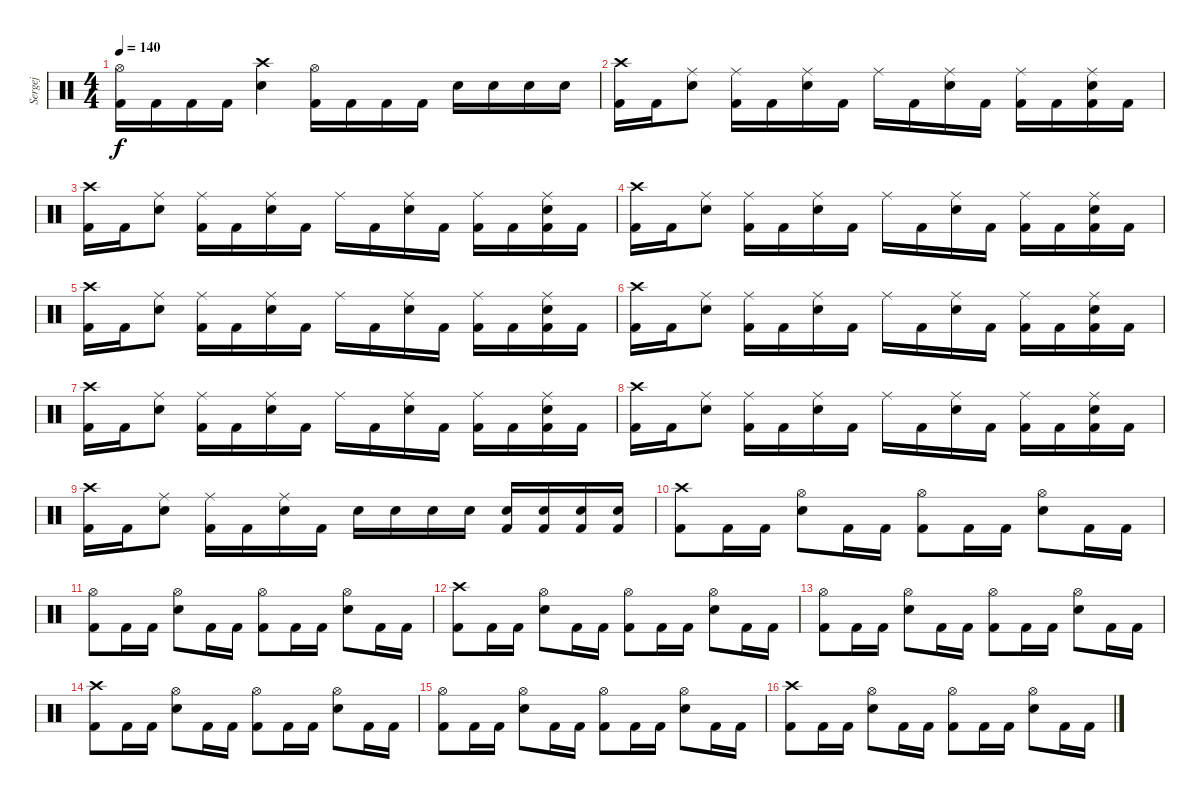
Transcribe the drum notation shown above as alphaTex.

\track ("Sergej" "Sergej") {instrument percussion}
\staff {score}
\articulation defaults
\ts (4 4)
\tempo 140
\clef neutral
\ks c
("Hi-Hat (open)" "Kick (hit) 2").16{dy f} "Kick (hit) 2".16 "Kick (hit) 2".16 "Kick (hit) 2".16 ("Crash high (hit)" "Snare (hit) 2").4 ("Hi-Hat (open)" "Kick (hit) 2").16 "Kick (hit) 2".16 "Kick (hit) 2".16 "Kick (hit) 2".16 "Snare (hit) 2".16 "Snare (hit) 2".16 "Snare (hit) 2".16 "Snare (hit) 2".16 |
("Crash high (hit)" "Kick (hit) 2").16 "Kick (hit) 2".16 ("Ride (middle)" "Snare (hit) 2").8 ("Ride (middle)" "Kick (hit) 2").16 "Kick (hit) 2".16 ("Ride (middle)" "Snare (hit) 2").16 "Kick (hit) 2".16 "Ride (middle)".16 "Kick (hit) 2".16 ("Ride (middle)" "Snare (hit) 2").16 "Kick (hit) 2".16 ("Ride (middle)" "Kick (hit) 2").16 "Kick (hit) 2".16 ("Ride (middle)" "Snare (hit) 2" "Kick (hit) 2").16 "Kick (hit) 2".16 |
("Crash high (hit)" "Kick (hit) 2").16 "Kick (hit) 2".16 ("Ride (middle)" "Snare (hit) 2").8 ("Ride (middle)" "Kick (hit) 2").16 "Kick (hit) 2".16 ("Ride (middle)" "Snare (hit) 2").16 "Kick (hit) 2".16 "Ride (middle)".16 "Kick (hit) 2".16 ("Ride (middle)" "Snare (hit) 2").16 "Kick (hit) 2".16 ("Ride (middle)" "Kick (hit) 2").16 "Kick (hit) 2".16 ("Ride (middle)" "Snare (hit) 2" "Kick (hit) 2").16 "Kick (hit) 2".16 |
("Crash high (hit)" "Kick (hit) 2").16 "Kick (hit) 2".16 ("Ride (middle)" "Snare (hit) 2").8 ("Ride (middle)" "Kick (hit) 2").16 "Kick (hit) 2".16 ("Ride (middle)" "Snare (hit) 2").16 "Kick (hit) 2".16 "Ride (middle)".16 "Kick (hit) 2".16 ("Ride (middle)" "Snare (hit) 2").16 "Kick (hit) 2".16 ("Ride (middle)" "Kick (hit) 2").16 "Kick (hit) 2".16 ("Ride (middle)" "Snare (hit) 2" "Kick (hit) 2").16 "Kick (hit) 2".16 |
("Crash high (hit)" "Kick (hit) 2").16 "Kick (hit) 2".16 ("Ride (middle)" "Snare (hit) 2").8 ("Ride (middle)" "Kick (hit) 2").16 "Kick (hit) 2".16 ("Ride (middle)" "Snare (hit) 2").16 "Kick (hit) 2".16 "Ride (middle)".16 "Kick (hit) 2".16 ("Ride (middle)" "Snare (hit) 2").16 "Kick (hit) 2".16 ("Ride (middle)" "Kick (hit) 2").16 "Kick (hit) 2".16 ("Ride (middle)" "Snare (hit) 2" "Kick (hit) 2").16 "Kick (hit) 2".16 |
("Crash high (hit)" "Kick (hit) 2").16 "Kick (hit) 2".16 ("Ride (middle)" "Snare (hit) 2").8 ("Ride (middle)" "Kick (hit) 2").16 "Kick (hit) 2".16 ("Ride (middle)" "Snare (hit) 2").16 "Kick (hit) 2".16 "Ride (middle)".16 "Kick (hit) 2".16 ("Ride (middle)" "Snare (hit) 2").16 "Kick (hit) 2".16 ("Ride (middle)" "Kick (hit) 2").16 "Kick (hit) 2".16 ("Ride (middle)" "Snare (hit) 2" "Kick (hit) 2").16 "Kick (hit) 2".16 |
("Crash high (hit)" "Kick (hit) 2").16 "Kick (hit) 2".16 ("Ride (middle)" "Snare (hit) 2").8 ("Ride (middle)" "Kick (hit) 2").16 "Kick (hit) 2".16 ("Ride (middle)" "Snare (hit) 2").16 "Kick (hit) 2".16 "Ride (middle)".16 "Kick (hit) 2".16 ("Ride (middle)" "Snare (hit) 2").16 "Kick (hit) 2".16 ("Ride (middle)" "Kick (hit) 2").16 "Kick (hit) 2".16 ("Ride (middle)" "Snare (hit) 2" "Kick (hit) 2").16 "Kick (hit) 2".16 |
("Crash high (hit)" "Kick (hit) 2").16 "Kick (hit) 2".16 ("Ride (middle)" "Snare (hit) 2").8 ("Ride (middle)" "Kick (hit) 2").16 "Kick (hit) 2".16 ("Ride (middle)" "Snare (hit) 2").16 "Kick (hit) 2".16 "Ride (middle)".16 "Kick (hit) 2".16 ("Ride (middle)" "Snare (hit) 2").16 "Kick (hit) 2".16 ("Ride (middle)" "Kick (hit) 2").16 "Kick (hit) 2".16 ("Ride (middle)" "Snare (hit) 2" "Kick (hit) 2").16 "Kick (hit) 2".16 |
("Crash high (hit)" "Kick (hit) 2").16 "Kick (hit) 2".16 ("Ride (middle)" "Snare (hit) 2").8 ("Ride (middle)" "Kick (hit) 2").16 "Kick (hit) 2".16 ("Ride (middle)" "Snare (hit) 2").16 "Kick (hit) 2".16 "Snare (hit) 2".16 "Snare (hit) 2".16 "Snare (hit) 2".16 "Snare (hit) 2".16 ("Kick (hit) 2" "Snare (hit) 2").16 ("Kick (hit) 2" "Snare (hit) 2").16 ("Kick (hit) 2" "Snare (hit) 2").16 ("Kick (hit) 2" "Snare (hit) 2").16 |
("Crash high (hit)" "Kick (hit) 2").8 "Kick (hit) 2".16 "Kick (hit) 2".16 ("Hi-Hat (open)" "Snare (hit) 2").8 "Kick (hit) 2".16 "Kick (hit) 2".16 ("Hi-Hat (open)" "Kick (hit) 2").8 "Kick (hit) 2".16 "Kick (hit) 2".16 ("Hi-Hat (open)" "Snare (hit) 2").8 "Kick (hit) 2".16 "Kick (hit) 2".16 |
("Hi-Hat (open)" "Kick (hit) 2").8 "Kick (hit) 2".16 "Kick (hit) 2".16 ("Hi-Hat (open)" "Snare (hit) 2").8 "Kick (hit) 2".16 "Kick (hit) 2".16 ("Hi-Hat (open)" "Kick (hit) 2").8 "Kick (hit) 2".16 "Kick (hit) 2".16 ("Hi-Hat (open)" "Snare (hit) 2").8 "Kick (hit) 2".16 "Kick (hit) 2".16 |
("Crash high (hit)" "Kick (hit) 2").8 "Kick (hit) 2".16 "Kick (hit) 2".16 ("Hi-Hat (open)" "Snare (hit) 2").8 "Kick (hit) 2".16 "Kick (hit) 2".16 ("Hi-Hat (open)" "Kick (hit) 2").8 "Kick (hit) 2".16 "Kick (hit) 2".16 ("Hi-Hat (open)" "Snare (hit) 2").8 "Kick (hit) 2".16 "Kick (hit) 2".16 |
("Hi-Hat (open)" "Kick (hit) 2").8 "Kick (hit) 2".16 "Kick (hit) 2".16 ("Hi-Hat (open)" "Snare (hit) 2").8 "Kick (hit) 2".16 "Kick (hit) 2".16 ("Hi-Hat (open)" "Kick (hit) 2").8 "Kick (hit) 2".16 "Kick (hit) 2".16 ("Hi-Hat (open)" "Snare (hit) 2").8 "Kick (hit) 2".16 "Kick (hit) 2".16 |
("Crash high (hit)" "Kick (hit) 2").8 "Kick (hit) 2".16 "Kick (hit) 2".16 ("Hi-Hat (open)" "Snare (hit) 2").8 "Kick (hit) 2".16 "Kick (hit) 2".16 ("Hi-Hat (open)" "Kick (hit) 2").8 "Kick (hit) 2".16 "Kick (hit) 2".16 ("Hi-Hat (open)" "Snare (hit) 2").8 "Kick (hit) 2".16 "Kick (hit) 2".16 |
("Hi-Hat (open)" "Kick (hit) 2").8 "Kick (hit) 2".16 "Kick (hit) 2".16 ("Hi-Hat (open)" "Snare (hit) 2").8 "Kick (hit) 2".16 "Kick (hit) 2".16 ("Hi-Hat (open)" "Kick (hit) 2").8 "Kick (hit) 2".16 "Kick (hit) 2".16 ("Hi-Hat (open)" "Snare (hit) 2").8 "Kick (hit) 2".16 "Kick (hit) 2".16 |
("Crash high (hit)" "Kick (hit) 2").8 "Kick (hit) 2".16 "Kick (hit) 2".16 ("Hi-Hat (open)" "Snare (hit) 2").8 "Kick (hit) 2".16 "Kick (hit) 2".16 ("Hi-Hat (open)" "Kick (hit) 2").8 "Kick (hit) 2".16 "Kick (hit) 2".16 ("Hi-Hat (open)" "Snare (hit) 2").8 "Kick (hit) 2".16 "Kick (hit) 2".16
